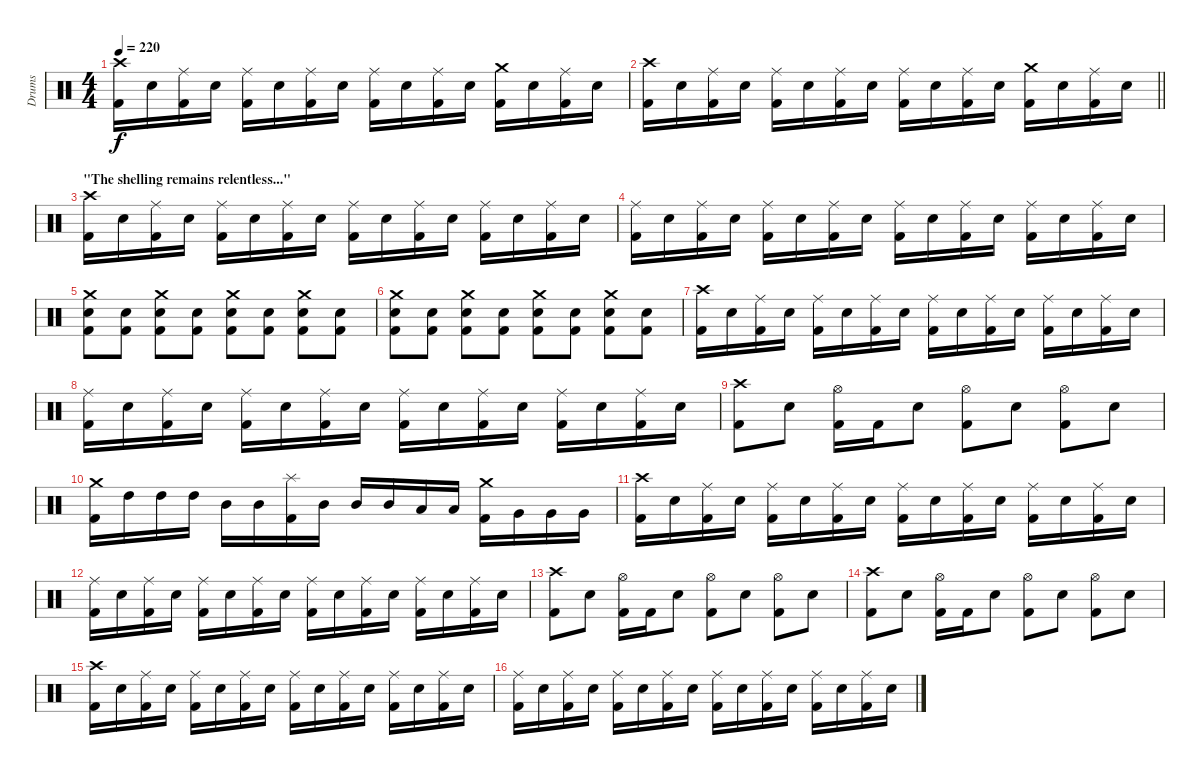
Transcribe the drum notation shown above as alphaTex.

\track ("Drums" "Drums") {instrument percussion}
\staff {score}
\articulation defaults
\ts (4 4)
\tempo 220
\clef neutral
\ks c
("Crash high (hit)" "Kick (hit) 2").16{dy f} "Electric Snare (hit)".16 ("Ride (middle)" "Kick (hit) 2").16 "Electric Snare (hit)".16 ("Ride (middle)" "Kick (hit) 2").16 "Electric Snare (hit)".16 ("Ride (middle)" "Kick (hit) 2").16 "Electric Snare (hit)".16 ("Ride (middle)" "Kick (hit) 2").16 "Electric Snare (hit)".16 ("Ride (middle)" "Kick (hit) 2").16 "Electric Snare (hit)".16 ("Crash medium (hit)" "Kick (hit) 2").16 "Electric Snare (hit)".16 ("Ride (middle)" "Kick (hit) 2").16 "Electric Snare (hit)".16 |
\barLineRight lightlight
("Crash high (hit)" "Kick (hit) 2").16 "Electric Snare (hit)".16 ("Ride (middle)" "Kick (hit) 2").16 "Electric Snare (hit)".16 ("Ride (middle)" "Kick (hit) 2").16 "Electric Snare (hit)".16 ("Ride (middle)" "Kick (hit) 2").16 "Electric Snare (hit)".16 ("Ride (middle)" "Kick (hit) 2").16 "Electric Snare (hit)".16 ("Ride (middle)" "Kick (hit) 2").16 "Electric Snare (hit)".16 ("Crash medium (hit)" "Kick (hit) 2").16 "Electric Snare (hit)".16 ("Ride (middle)" "Kick (hit) 2").16 "Electric Snare (hit)".16 |
\section ("" "\"The shelling remains relentless...\"")
("Crash high (hit)" "Kick (hit) 2").16 "Electric Snare (hit)".16 ("Ride (middle)" "Kick (hit) 2").16 "Electric Snare (hit)".16 ("Ride (middle)" "Kick (hit) 2").16 "Electric Snare (hit)".16 ("Ride (middle)" "Kick (hit) 2").16 "Electric Snare (hit)".16 ("Ride (middle)" "Kick (hit) 2").16 "Electric Snare (hit)".16 ("Ride (middle)" "Kick (hit) 2").16 "Electric Snare (hit)".16 ("Ride (middle)" "Kick (hit) 2").16 "Electric Snare (hit)".16 ("Ride (middle)" "Kick (hit) 2").16 "Electric Snare (hit)".16 |
("Ride (middle)" "Kick (hit) 2").16 "Electric Snare (hit)".16 ("Ride (middle)" "Kick (hit) 2").16 "Electric Snare (hit)".16 ("Ride (middle)" "Kick (hit) 2").16 "Electric Snare (hit)".16 ("Ride (middle)" "Kick (hit) 2").16 "Electric Snare (hit)".16 ("Ride (middle)" "Kick (hit) 2").16 "Electric Snare (hit)".16 ("Ride (middle)" "Kick (hit) 2").16 "Electric Snare (hit)".16 ("Ride (middle)" "Kick (hit) 2").16 "Electric Snare (hit)".16 ("Ride (middle)" "Kick (hit) 2").16 "Electric Snare (hit)".16 |
("Crash medium (hit)" "Electric Snare (hit)" "Kick (hit) 2").8 ("Electric Snare (hit)" "Kick (hit) 2").8 ("Crash medium (hit)" "Electric Snare (hit)" "Kick (hit) 2").8 ("Electric Snare (hit)" "Kick (hit) 2").8 ("Crash medium (hit)" "Electric Snare (hit)" "Kick (hit) 2").8 ("Electric Snare (hit)" "Kick (hit) 2").8 ("Crash medium (hit)" "Electric Snare (hit)" "Kick (hit) 2").8 ("Electric Snare (hit)" "Kick (hit) 2").8 |
("Crash medium (hit)" "Electric Snare (hit)" "Kick (hit) 2").8 ("Electric Snare (hit)" "Kick (hit) 2").8 ("Crash medium (hit)" "Electric Snare (hit)" "Kick (hit) 2").8 ("Electric Snare (hit)" "Kick (hit) 2").8 ("Crash medium (hit)" "Electric Snare (hit)" "Kick (hit) 2").8 ("Electric Snare (hit)" "Kick (hit) 2").8 ("Crash medium (hit)" "Electric Snare (hit)" "Kick (hit) 2").8 ("Electric Snare (hit)" "Kick (hit) 2").8 |
("Crash high (hit)" "Kick (hit) 2").16 "Electric Snare (hit)".16 ("Ride (middle)" "Kick (hit) 2").16 "Electric Snare (hit)".16 ("Ride (middle)" "Kick (hit) 2").16 "Electric Snare (hit)".16 ("Ride (middle)" "Kick (hit) 2").16 "Electric Snare (hit)".16 ("Ride (middle)" "Kick (hit) 2").16 "Electric Snare (hit)".16 ("Ride (middle)" "Kick (hit) 2").16 "Electric Snare (hit)".16 ("Ride (middle)" "Kick (hit) 2").16 "Electric Snare (hit)".16 ("Ride (middle)" "Kick (hit) 2").16 "Electric Snare (hit)".16 |
("Ride (middle)" "Kick (hit) 2").16 "Electric Snare (hit)".16 ("Ride (middle)" "Kick (hit) 2").16 "Electric Snare (hit)".16 ("Ride (middle)" "Kick (hit) 2").16 "Electric Snare (hit)".16 ("Ride (middle)" "Kick (hit) 2").16 "Electric Snare (hit)".16 ("Ride (middle)" "Kick (hit) 2").16 "Electric Snare (hit)".16 ("Ride (middle)" "Kick (hit) 2").16 "Electric Snare (hit)".16 ("Ride (middle)" "Kick (hit) 2").16 "Electric Snare (hit)".16 ("Ride (middle)" "Kick (hit) 2").16 "Electric Snare (hit)".16 |
("Crash high (hit)" "Kick (hit) 2").8 "Electric Snare (hit)".8 ("Hi-Hat (open)" "Kick (hit) 2").16 "Kick (hit) 2".16 "Electric Snare (hit)".8 ("Hi-Hat (open)" "Kick (hit) 2").8 "Electric Snare (hit)".8 ("Hi-Hat (open)" "Kick (hit) 2").8 "Electric Snare (hit)".8 |
("Crash medium (hit)" "Kick (hit) 2").16 "High Tom (hit)".16 "High Tom (hit)".16 "High Tom (hit)".16 "Mid Tom (hit)".16 "Mid Tom (hit)".16 ("Splash (hit)" "Kick (hit) 2").16 "Mid Tom (hit)".16 "Mid Tom (hit)".16 "Mid Tom (hit)".16 "Low Tom (hit)".16 "Low Tom (hit)".16 ("Crash medium (hit)" "Kick (hit) 2").16 "Very Low Tom (hit)".16 "Very Low Tom (hit)".16 "Very Low Tom (hit)".16 |
("Crash high (hit)" "Kick (hit) 2").16 "Electric Snare (hit)".16 ("Ride (middle)" "Kick (hit) 2").16 "Electric Snare (hit)".16 ("Ride (middle)" "Kick (hit) 2").16 "Electric Snare (hit)".16 ("Ride (middle)" "Kick (hit) 2").16 "Electric Snare (hit)".16 ("Ride (middle)" "Kick (hit) 2").16 "Electric Snare (hit)".16 ("Ride (middle)" "Kick (hit) 2").16 "Electric Snare (hit)".16 ("Ride (middle)" "Kick (hit) 2").16 "Electric Snare (hit)".16 ("Ride (middle)" "Kick (hit) 2").16 "Electric Snare (hit)".16 |
("Ride (middle)" "Kick (hit) 2").16 "Electric Snare (hit)".16 ("Ride (middle)" "Kick (hit) 2").16 "Electric Snare (hit)".16 ("Ride (middle)" "Kick (hit) 2").16 "Electric Snare (hit)".16 ("Ride (middle)" "Kick (hit) 2").16 "Electric Snare (hit)".16 ("Ride (middle)" "Kick (hit) 2").16 "Electric Snare (hit)".16 ("Ride (middle)" "Kick (hit) 2").16 "Electric Snare (hit)".16 ("Ride (middle)" "Kick (hit) 2").16 "Electric Snare (hit)".16 ("Ride (middle)" "Kick (hit) 2").16 "Electric Snare (hit)".16 |
("Crash high (hit)" "Kick (hit) 2").8 "Electric Snare (hit)".8 ("Hi-Hat (open)" "Kick (hit) 2").16 "Kick (hit) 2".16 "Electric Snare (hit)".8 ("Hi-Hat (open)" "Kick (hit) 2").8 "Electric Snare (hit)".8 ("Hi-Hat (open)" "Kick (hit) 2").8 "Electric Snare (hit)".8 |
("Crash high (hit)" "Kick (hit) 2").8 "Electric Snare (hit)".8 ("Hi-Hat (open)" "Kick (hit) 2").16 "Kick (hit) 2".16 "Electric Snare (hit)".8 ("Hi-Hat (open)" "Kick (hit) 2").8 "Electric Snare (hit)".8 ("Hi-Hat (open)" "Kick (hit) 2").8 "Electric Snare (hit)".8 |
("Crash high (hit)" "Kick (hit) 2").16 "Electric Snare (hit)".16 ("Ride (middle)" "Kick (hit) 2").16 "Electric Snare (hit)".16 ("Ride (middle)" "Kick (hit) 2").16 "Electric Snare (hit)".16 ("Ride (middle)" "Kick (hit) 2").16 "Electric Snare (hit)".16 ("Ride (middle)" "Kick (hit) 2").16 "Electric Snare (hit)".16 ("Ride (middle)" "Kick (hit) 2").16 "Electric Snare (hit)".16 ("Ride (middle)" "Kick (hit) 2").16 "Electric Snare (hit)".16 ("Ride (middle)" "Kick (hit) 2").16 "Electric Snare (hit)".16 |
("Ride (middle)" "Kick (hit) 2").16 "Electric Snare (hit)".16 ("Ride (middle)" "Kick (hit) 2").16 "Electric Snare (hit)".16 ("Ride (middle)" "Kick (hit) 2").16 "Electric Snare (hit)".16 ("Ride (middle)" "Kick (hit) 2").16 "Electric Snare (hit)".16 ("Ride (middle)" "Kick (hit) 2").16 "Electric Snare (hit)".16 ("Ride (middle)" "Kick (hit) 2").16 "Electric Snare (hit)".16 ("Ride (middle)" "Kick (hit) 2").16 "Electric Snare (hit)".16 ("Ride (middle)" "Kick (hit) 2").16 "Electric Snare (hit)".16
